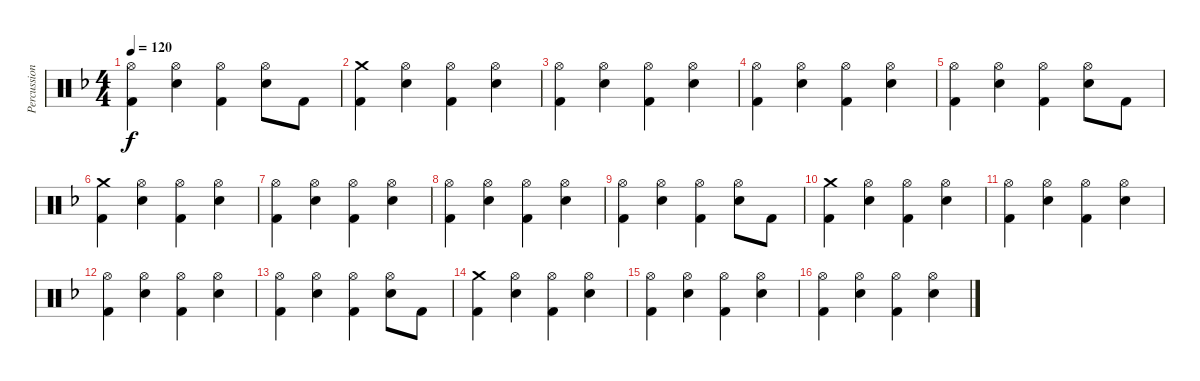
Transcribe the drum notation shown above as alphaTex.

\track ("Percussion" "Percussion") {instrument percussion}
\staff {score}
\articulation defaults
\ts (4 4)
\tempo 120
\clef neutral
\ks f
("Hi-Hat (open)" "Kick (hit) 2").4{dy f} ("Hi-Hat (open)" "Electric Snare (hit)").4 ("Hi-Hat (open)" "Kick (hit) 2").4 ("Hi-Hat (open)" "Electric Snare (hit)").8 "Kick (hit) 2".8 |
("Crash medium (hit)" "Kick (hit) 2").4 ("Hi-Hat (open)" "Electric Snare (hit)").4 ("Hi-Hat (open)" "Kick (hit) 2").4 ("Hi-Hat (open)" "Electric Snare (hit)").4 |
("Hi-Hat (open)" "Kick (hit) 2").4 ("Hi-Hat (open)" "Electric Snare (hit)").4 ("Hi-Hat (open)" "Kick (hit) 2").4 ("Hi-Hat (open)" "Electric Snare (hit)").4 |
("Hi-Hat (open)" "Kick (hit) 2").4 ("Hi-Hat (open)" "Electric Snare (hit)").4 ("Hi-Hat (open)" "Kick (hit) 2").4 ("Hi-Hat (open)" "Electric Snare (hit)").4 |
("Hi-Hat (open)" "Kick (hit) 2").4 ("Hi-Hat (open)" "Electric Snare (hit)").4 ("Hi-Hat (open)" "Kick (hit) 2").4 ("Hi-Hat (open)" "Electric Snare (hit)").8 "Kick (hit) 2".8 |
("Crash medium (hit)" "Kick (hit) 2").4 ("Hi-Hat (open)" "Electric Snare (hit)").4 ("Hi-Hat (open)" "Kick (hit) 2").4 ("Hi-Hat (open)" "Electric Snare (hit)").4 |
("Hi-Hat (open)" "Kick (hit) 2").4 ("Hi-Hat (open)" "Electric Snare (hit)").4 ("Hi-Hat (open)" "Kick (hit) 2").4 ("Hi-Hat (open)" "Electric Snare (hit)").4 |
("Hi-Hat (open)" "Kick (hit) 2").4 ("Hi-Hat (open)" "Electric Snare (hit)").4 ("Hi-Hat (open)" "Kick (hit) 2").4 ("Hi-Hat (open)" "Electric Snare (hit)").4 |
("Hi-Hat (open)" "Kick (hit) 2").4 ("Hi-Hat (open)" "Electric Snare (hit)").4 ("Hi-Hat (open)" "Kick (hit) 2").4 ("Hi-Hat (open)" "Electric Snare (hit)").8 "Kick (hit) 2".8 |
("Crash medium (hit)" "Kick (hit) 2").4 ("Hi-Hat (open)" "Electric Snare (hit)").4 ("Hi-Hat (open)" "Kick (hit) 2").4 ("Hi-Hat (open)" "Electric Snare (hit)").4 |
("Hi-Hat (open)" "Kick (hit) 2").4 ("Hi-Hat (open)" "Electric Snare (hit)").4 ("Hi-Hat (open)" "Kick (hit) 2").4 ("Hi-Hat (open)" "Electric Snare (hit)").4 |
("Hi-Hat (open)" "Kick (hit) 2").4 ("Hi-Hat (open)" "Electric Snare (hit)").4 ("Hi-Hat (open)" "Kick (hit) 2").4 ("Hi-Hat (open)" "Electric Snare (hit)").4 |
("Hi-Hat (open)" "Kick (hit) 2").4 ("Hi-Hat (open)" "Electric Snare (hit)").4 ("Hi-Hat (open)" "Kick (hit) 2").4 ("Hi-Hat (open)" "Electric Snare (hit)").8 "Kick (hit) 2".8 |
("Crash medium (hit)" "Kick (hit) 2").4 ("Hi-Hat (open)" "Electric Snare (hit)").4 ("Hi-Hat (open)" "Kick (hit) 2").4 ("Hi-Hat (open)" "Electric Snare (hit)").4 |
("Hi-Hat (open)" "Kick (hit) 2").4 ("Hi-Hat (open)" "Electric Snare (hit)").4 ("Hi-Hat (open)" "Kick (hit) 2").4 ("Hi-Hat (open)" "Electric Snare (hit)").4 |
("Hi-Hat (open)" "Kick (hit) 2").4 ("Hi-Hat (open)" "Electric Snare (hit)").4 ("Hi-Hat (open)" "Kick (hit) 2").4 ("Hi-Hat (open)" "Electric Snare (hit)").4
